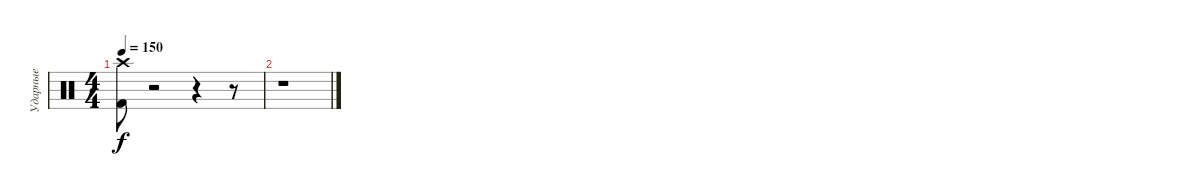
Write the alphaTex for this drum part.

\track ("Ударные" "Ударные") {instrument percussion}
\staff {score}
\articulation defaults
\ts (4 4)
\tempo 150
\clef neutral
\ks c
("Crash high (hit)" "Kick (hit) 2").8{dy f} r.2 r.4 r.8 |
r.1
